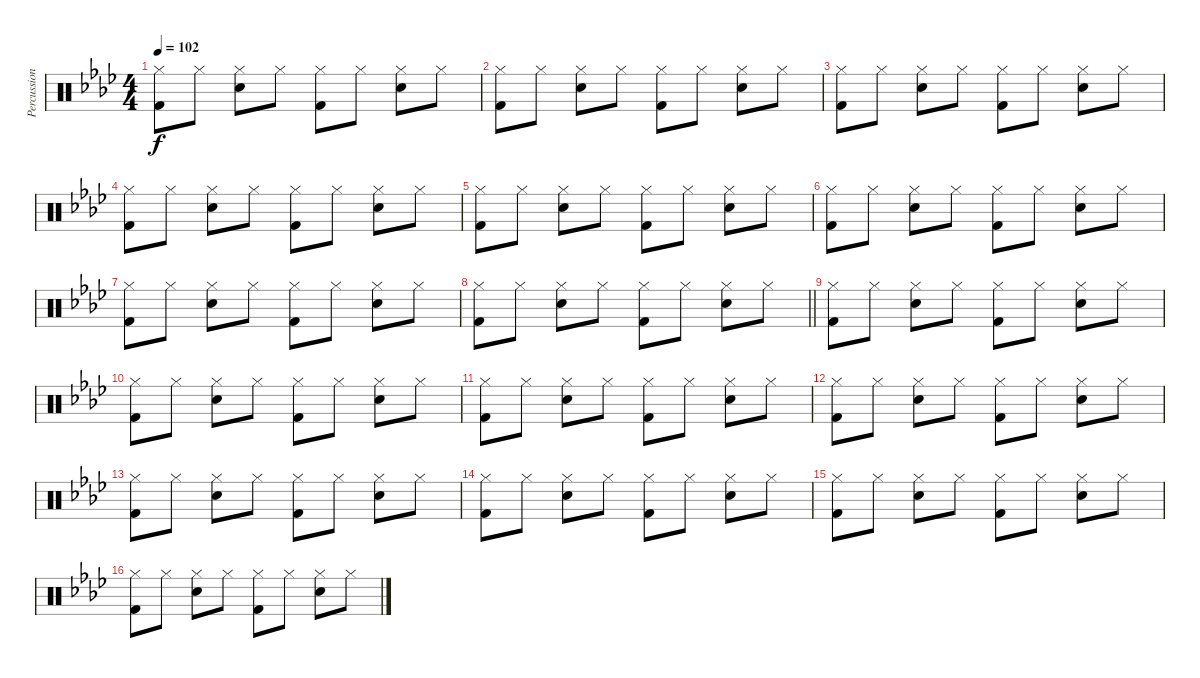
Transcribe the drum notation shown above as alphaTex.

\track ("Percussions" "Percussion") {instrument percussion}
\staff {score}
\articulation defaults
\ts (4 4)
\tempo 102
\clef neutral
\ks ab
("Hi-Hat (closed)" "Kick (hit) 2").8{dy f} "Hi-Hat (closed)".8 ("Hi-Hat (closed)" "Snare (hit) 2").8 "Hi-Hat (closed)".8 ("Hi-Hat (closed)" "Kick (hit) 2").8 "Hi-Hat (closed)".8 ("Hi-Hat (closed)" "Snare (hit) 2").8 "Hi-Hat (closed)".8 |
("Hi-Hat (closed)" "Kick (hit) 2").8 "Hi-Hat (closed)".8 ("Hi-Hat (closed)" "Snare (hit) 2").8 "Hi-Hat (closed)".8 ("Hi-Hat (closed)" "Kick (hit) 2").8 "Hi-Hat (closed)".8 ("Hi-Hat (closed)" "Snare (hit) 2").8 "Hi-Hat (closed)".8 |
("Hi-Hat (closed)" "Kick (hit) 2").8 "Hi-Hat (closed)".8 ("Hi-Hat (closed)" "Snare (hit) 2").8 "Hi-Hat (closed)".8 ("Hi-Hat (closed)" "Kick (hit) 2").8 "Hi-Hat (closed)".8 ("Hi-Hat (closed)" "Snare (hit) 2").8 "Hi-Hat (closed)".8 |
("Hi-Hat (closed)" "Kick (hit) 2").8 "Hi-Hat (closed)".8 ("Hi-Hat (closed)" "Snare (hit) 2").8 "Hi-Hat (closed)".8 ("Hi-Hat (closed)" "Kick (hit) 2").8 "Hi-Hat (closed)".8 ("Hi-Hat (closed)" "Snare (hit) 2").8 "Hi-Hat (closed)".8 |
("Hi-Hat (closed)" "Kick (hit) 2").8 "Hi-Hat (closed)".8 ("Hi-Hat (closed)" "Snare (hit) 2").8 "Hi-Hat (closed)".8 ("Hi-Hat (closed)" "Kick (hit) 2").8 "Hi-Hat (closed)".8 ("Hi-Hat (closed)" "Snare (hit) 2").8 "Hi-Hat (closed)".8 |
("Hi-Hat (closed)" "Kick (hit) 2").8 "Hi-Hat (closed)".8 ("Hi-Hat (closed)" "Snare (hit) 2").8 "Hi-Hat (closed)".8 ("Hi-Hat (closed)" "Kick (hit) 2").8 "Hi-Hat (closed)".8 ("Hi-Hat (closed)" "Snare (hit) 2").8 "Hi-Hat (closed)".8 |
("Hi-Hat (closed)" "Kick (hit) 2").8 "Hi-Hat (closed)".8 ("Hi-Hat (closed)" "Snare (hit) 2").8 "Hi-Hat (closed)".8 ("Hi-Hat (closed)" "Kick (hit) 2").8 "Hi-Hat (closed)".8 ("Hi-Hat (closed)" "Snare (hit) 2").8 "Hi-Hat (closed)".8 |
\barLineRight lightlight
("Hi-Hat (closed)" "Kick (hit) 2").8 "Hi-Hat (closed)".8 ("Hi-Hat (closed)" "Snare (hit) 2").8 "Hi-Hat (closed)".8 ("Hi-Hat (closed)" "Kick (hit) 2").8 "Hi-Hat (closed)".8 ("Hi-Hat (closed)" "Snare (hit) 2").8 "Hi-Hat (closed)".8 |
("Hi-Hat (closed)" "Kick (hit) 2").8 "Hi-Hat (closed)".8 ("Hi-Hat (closed)" "Snare (hit) 2").8 "Hi-Hat (closed)".8 ("Hi-Hat (closed)" "Kick (hit) 2").8 "Hi-Hat (closed)".8 ("Hi-Hat (closed)" "Snare (hit) 2").8 "Hi-Hat (closed)".8 |
("Hi-Hat (closed)" "Kick (hit) 2").8 "Hi-Hat (closed)".8 ("Hi-Hat (closed)" "Snare (hit) 2").8 "Hi-Hat (closed)".8 ("Hi-Hat (closed)" "Kick (hit) 2").8 "Hi-Hat (closed)".8 ("Hi-Hat (closed)" "Snare (hit) 2").8 "Hi-Hat (closed)".8 |
("Hi-Hat (closed)" "Kick (hit) 2").8 "Hi-Hat (closed)".8 ("Hi-Hat (closed)" "Snare (hit) 2").8 "Hi-Hat (closed)".8 ("Hi-Hat (closed)" "Kick (hit) 2").8 "Hi-Hat (closed)".8 ("Hi-Hat (closed)" "Snare (hit) 2").8 "Hi-Hat (closed)".8 |
("Hi-Hat (closed)" "Kick (hit) 2").8 "Hi-Hat (closed)".8 ("Hi-Hat (closed)" "Snare (hit) 2").8 "Hi-Hat (closed)".8 ("Hi-Hat (closed)" "Kick (hit) 2").8 "Hi-Hat (closed)".8 ("Hi-Hat (closed)" "Snare (hit) 2").8 "Hi-Hat (closed)".8 |
("Hi-Hat (closed)" "Kick (hit) 2").8 "Hi-Hat (closed)".8 ("Hi-Hat (closed)" "Snare (hit) 2").8 "Hi-Hat (closed)".8 ("Hi-Hat (closed)" "Kick (hit) 2").8 "Hi-Hat (closed)".8 ("Hi-Hat (closed)" "Snare (hit) 2").8 "Hi-Hat (closed)".8 |
("Hi-Hat (closed)" "Kick (hit) 2").8 "Hi-Hat (closed)".8 ("Hi-Hat (closed)" "Snare (hit) 2").8 "Hi-Hat (closed)".8 ("Hi-Hat (closed)" "Kick (hit) 2").8 "Hi-Hat (closed)".8 ("Hi-Hat (closed)" "Snare (hit) 2").8 "Hi-Hat (closed)".8 |
("Hi-Hat (closed)" "Kick (hit) 2").8 "Hi-Hat (closed)".8 ("Hi-Hat (closed)" "Snare (hit) 2").8 "Hi-Hat (closed)".8 ("Hi-Hat (closed)" "Kick (hit) 2").8 "Hi-Hat (closed)".8 ("Hi-Hat (closed)" "Snare (hit) 2").8 "Hi-Hat (closed)".8 |
("Hi-Hat (closed)" "Kick (hit) 2").8 "Hi-Hat (closed)".8 ("Hi-Hat (closed)" "Snare (hit) 2").8 "Hi-Hat (closed)".8 ("Hi-Hat (closed)" "Kick (hit) 2").8 "Hi-Hat (closed)".8 ("Hi-Hat (closed)" "Snare (hit) 2").8 "Hi-Hat (closed)".8
